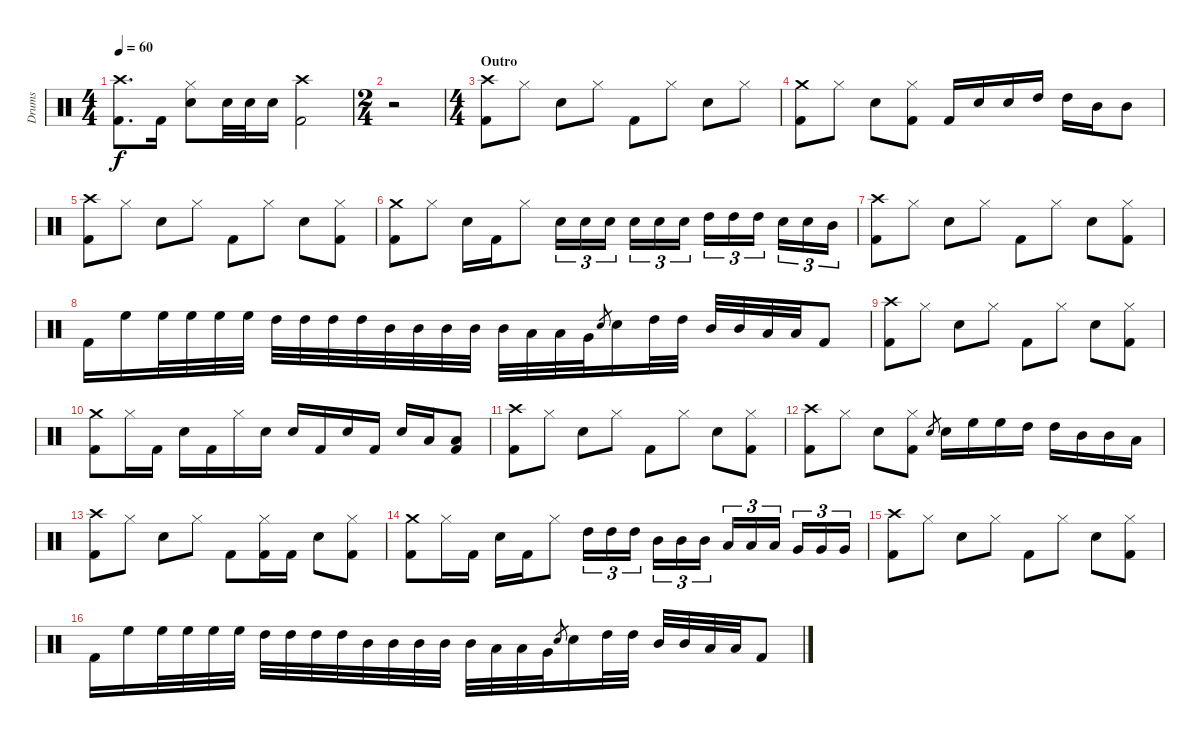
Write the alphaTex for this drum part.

\track ("Drums " "Drums ") {instrument percussion}
\staff {score}
\articulation defaults
\ts (4 4)
\tempo 60
\clef neutral
\ks aminor
("Crash high (hit)" "Kick (hit) 2").8{d dy f} "Kick (hit) 2".16 ("Hi-Hat (closed)" "Snare (hit) 2").8 "Snare (hit) 2".32 "Snare (hit) 2".32 "Snare (hit) 2".16 ("Crash high (hit)" "Kick (hit) 2").2 |
\ts (2 4)
r.2 |
\ts (4 4)
\section ("" "Outro")
("Crash high (hit)" "Kick (hit) 2").8 "Hi-Hat (closed)".8 "Snare (hit) 2".8 "Hi-Hat (closed)".8 "Kick (hit) 2".8 "Hi-Hat (closed)".8 "Snare (hit) 2".8 "Hi-Hat (closed)".8 |
("Crash medium (hit)" "Kick (hit) 2").8 "Hi-Hat (closed)".8 "Snare (hit) 2".8 ("Hi-Hat (closed)" "Kick (hit) 2").8 "Kick (hit) 2".16 "Snare (hit) 2".16 "Snare (hit) 2".16 "High Tom (hit)".16 "High Tom (hit)".16 "Mid Tom (hit)".16 "Mid Tom (hit)".8 |
("Crash high (hit)" "Kick (hit) 2").8 "Hi-Hat (closed)".8 "Snare (hit) 2".8 "Hi-Hat (closed)".8 "Kick (hit) 2".8 "Hi-Hat (closed)".8 "Snare (hit) 2".8 ("Hi-Hat (closed)" "Kick (hit) 2").8 |
("Crash medium (hit)" "Kick (hit) 2").8 "Hi-Hat (closed)".8 "Snare (hit) 2".16 "Kick (hit) 2".16 "Hi-Hat (closed)".8 "Snare (hit) 2".16{tu (3 2)} "Snare (hit) 2".16{tu (3 2)} "Snare (hit) 2".16{tu (3 2)} "Snare (hit) 2".16{tu (3 2)} "Snare (hit) 2".16{tu (3 2)} "Snare (hit) 2".16{tu (3 2)} "High Tom (hit)".16{tu (3 2)} "High Tom (hit)".16{tu (3 2)} "High Tom (hit)".16{tu (3 2)} "Snare (hit) 2".16{tu (3 2)} "Snare (hit) 2".16{tu (3 2)} "Mid Tom (hit)".16{tu (3 2)} |
("Crash high (hit)" "Kick (hit) 2").8 "Hi-Hat (closed)".8 "Snare (hit) 2".8 "Hi-Hat (closed)".8 "Kick (hit) 2".8 "Hi-Hat (closed)".8 "Snare (hit) 2".8 ("Hi-Hat (closed)" "Kick (hit) 2").8 |
"Kick (hit) 2".16 "High Floor Tom (hit)".16 "High Floor Tom (hit)".32 "High Floor Tom (hit)".32 "High Floor Tom (hit)".32 "High Floor Tom (hit)".32 "High Tom (hit)".32 "High Tom (hit)".32 "High Tom (hit)".32 "High Tom (hit)".32 "Mid Tom (hit)".32 "Mid Tom (hit)".32 "Mid Tom (hit)".32 "Mid Tom (hit)".32 "Mid Tom (hit)".32 "Low Tom (hit)".32 "Low Tom (hit)".32 "Very Low Tom (hit)".32 "Snare (hit) 2".8{gr} "Snare (hit) 2".16 "High Tom (hit)".32 "High Tom (hit)".32 "Mid Tom (hit)".32 "Mid Tom (hit)".32 "Low Tom (hit)".32 "Low Tom (hit)".32 "Kick (hit) 2".8 |
("Crash high (hit)" "Kick (hit) 2").8 "Hi-Hat (closed)".8 "Snare (hit) 2".8 "Hi-Hat (closed)".8 "Kick (hit) 2".8 "Hi-Hat (closed)".8 "Snare (hit) 2".8 ("Hi-Hat (closed)" "Kick (hit) 2").8 |
("Crash medium (hit)" "Kick (hit) 2").8 "Hi-Hat (closed)".16 "Kick (hit) 2".16 "Snare (hit) 2".16 "Kick (hit) 2".16 "Hi-Hat (closed)".16 "Snare (hit) 2".16 "Snare (hit) 2".16 "Kick (hit) 2".16 "Snare (hit) 2".16 "Kick (hit) 2".16 "Snare (hit) 2".16 "Low Tom (hit)".16 ("Low Tom (hit)" "Kick (hit) 2").8 |
("Crash high (hit)" "Kick (hit) 2").8 "Hi-Hat (closed)".8 "Snare (hit) 2".8 "Hi-Hat (closed)".8 "Kick (hit) 2".8 "Hi-Hat (closed)".8 "Snare (hit) 2".8 ("Hi-Hat (closed)" "Kick (hit) 2").8 |
("Crash high (hit)" "Kick (hit) 2").8 "Hi-Hat (closed)".8 "Snare (hit) 2".8 ("Hi-Hat (closed)" "Kick (hit) 2").8 "Snare (hit) 2".8{gr} "Snare (hit) 2".16 "High Floor Tom (hit)".16 "High Floor Tom (hit)".16 "High Tom (hit)".16 "High Tom (hit)".16 "Mid Tom (hit)".16 "Mid Tom (hit)".16 "Low Tom (hit)".16 |
("Crash high (hit)" "Kick (hit) 2").8 "Hi-Hat (closed)".8 "Snare (hit) 2".8 "Hi-Hat (closed)".8 "Kick (hit) 2".8 ("Hi-Hat (closed)" "Kick (hit) 2").16 "Kick (hit) 2".16 "Snare (hit) 2".8 ("Hi-Hat (closed)" "Kick (hit) 2").8 |
("Crash medium (hit)" "Kick (hit) 2").8 "Hi-Hat (closed)".16 "Kick (hit) 2".16 "Snare (hit) 2".16 "Kick (hit) 2".16 "Hi-Hat (closed)".8 "High Tom (hit)".16{tu (3 2)} "High Tom (hit)".16{tu (3 2)} "High Tom (hit)".16{tu (3 2)} "Mid Tom (hit)".16{tu (3 2)} "Mid Tom (hit)".16{tu (3 2)} "Mid Tom (hit)".16{tu (3 2)} "Low Tom (hit)".16{tu (3 2)} "Low Tom (hit)".16{tu (3 2)} "Low Tom (hit)".16{tu (3 2)} "Very Low Tom (hit)".16{tu (3 2)} "Very Low Tom (hit)".16{tu (3 2)} "Very Low Tom (hit)".16{tu (3 2)} |
("Crash high (hit)" "Kick (hit) 2").8 "Hi-Hat (closed)".8 "Snare (hit) 2".8 "Hi-Hat (closed)".8 "Kick (hit) 2".8 "Hi-Hat (closed)".8 "Snare (hit) 2".8 ("Hi-Hat (closed)" "Kick (hit) 2").8 |
"Kick (hit) 2".16 "High Floor Tom (hit)".16 "High Floor Tom (hit)".32 "High Floor Tom (hit)".32 "High Floor Tom (hit)".32 "High Floor Tom (hit)".32 "High Tom (hit)".32 "High Tom (hit)".32 "High Tom (hit)".32 "High Tom (hit)".32 "Mid Tom (hit)".32 "Mid Tom (hit)".32 "Mid Tom (hit)".32 "Mid Tom (hit)".32 "Mid Tom (hit)".32 "Low Tom (hit)".32 "Low Tom (hit)".32 "Very Low Tom (hit)".32 "Snare (hit) 2".8{gr} "Snare (hit) 2".16 "High Tom (hit)".32 "High Tom (hit)".32 "Mid Tom (hit)".32 "Mid Tom (hit)".32 "Low Tom (hit)".32 "Low Tom (hit)".32 "Kick (hit) 2".8
